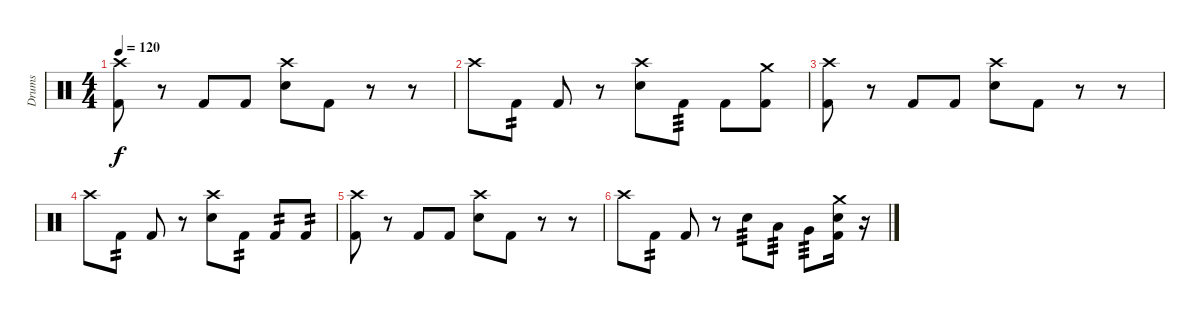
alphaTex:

\track ("Drums" "Drums") {instrument percussion}
\staff {score}
\articulation defaults
\ts (4 4)
\tempo 120
\clef neutral
\ks c
("Crash high (hit)" "Kick (hit) 2").8{dy f} r.8 "Kick (hit) 2".8 "Kick (hit) 2".8 ("Crash high (hit)" "Electric Snare (hit)").8 "Kick (hit) 2".8 r.8 r.8 |
"Crash high (hit)".8 "Kick (hit) 2".8{tp 2} "Kick (hit) 2".8 r.8 ("Crash high (hit)" "Electric Snare (hit)").8 "Kick (hit) 2".8{tp 3} "Kick (hit) 2".8 ("Crash medium (hit)" "Kick (hit) 2").8 |
("Crash high (hit)" "Kick (hit) 2").8 r.8 "Kick (hit) 2".8 "Kick (hit) 2".8 ("Crash high (hit)" "Electric Snare (hit)").8 "Kick (hit) 2".8 r.8 r.8 |
"Crash high (hit)".8 "Kick (hit) 2".8{tp 2} "Kick (hit) 2".8 r.8 ("Crash high (hit)" "Electric Snare (hit)").8 "Kick (hit) 2".8{tp 2} "Kick (hit) 2".8{tp 2} "Kick (hit) 2".8{tp 2} |
("Crash high (hit)" "Kick (hit) 2").8 r.8 "Kick (hit) 2".8 "Kick (hit) 2".8 ("Crash high (hit)" "Electric Snare (hit)").8 "Kick (hit) 2".8 r.8 r.8 |
"Crash high (hit)".8 "Kick (hit) 2".8{tp 2} "Kick (hit) 2".8 r.8 "Electric Snare (hit)".8{tp 3} "Low Floor Tom (hit)".8{tp 3} "Very Low Tom (hit)".8{tp 3} ("Crash medium (hit)" "Electric Snare (hit)" "Kick (hit) 2").16 r.16
